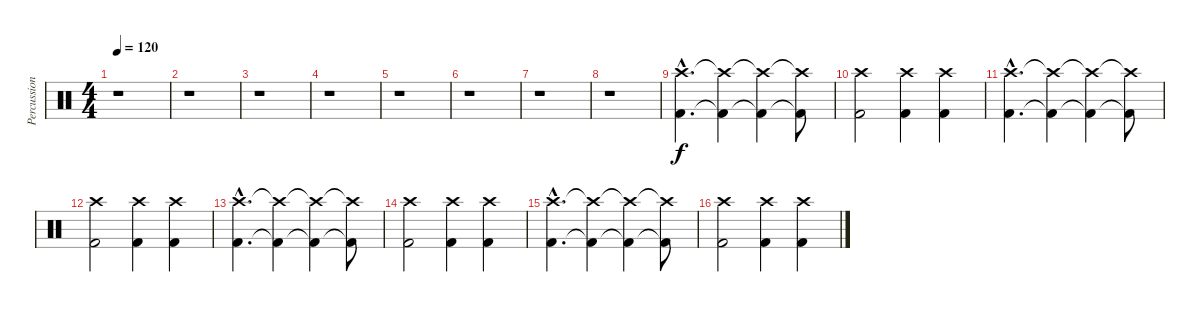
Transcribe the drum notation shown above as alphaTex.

\track ("Percussion" "Percussion") {instrument percussion}
\staff {score}
\articulation defaults
\ts (4 4)
\tempo 120
\clef neutral
\ks c
r.1{dy f} |
r.1 |
r.1 |
r.1 |
r.1 |
r.1 |
r.1 |
r.1 |
("Kick (hit) 2"{hac} "Crash high (hit)"{hac}).4{d} ("Kick (hit) 2"{t} "Crash high (hit)"{t}).4 ("Kick (hit) 2"{t} "Crash high (hit)"{t}).4 ("Kick (hit) 2"{t} "Crash high (hit)"{t}).8 |
("Kick (hit) 2" "Crash high (hit)").2 ("Kick (hit) 2" "Crash high (hit)").4 ("Kick (hit) 2" "Crash high (hit)").4 |
("Kick (hit) 2"{hac} "Crash high (hit)"{hac}).4{d} ("Kick (hit) 2"{t} "Crash high (hit)"{t}).4 ("Kick (hit) 2"{t} "Crash high (hit)"{t}).4 ("Kick (hit) 2"{t} "Crash high (hit)"{t}).8 |
("Kick (hit) 2" "Crash high (hit)").2 ("Kick (hit) 2" "Crash high (hit)").4 ("Kick (hit) 2" "Crash high (hit)").4 |
("Kick (hit) 2"{hac} "Crash high (hit)"{hac}).4{d} ("Kick (hit) 2"{t} "Crash high (hit)"{t}).4 ("Kick (hit) 2"{t} "Crash high (hit)"{t}).4 ("Kick (hit) 2"{t} "Crash high (hit)"{t}).8 |
("Kick (hit) 2" "Crash high (hit)").2 ("Kick (hit) 2" "Crash high (hit)").4 ("Kick (hit) 2" "Crash high (hit)").4 |
("Kick (hit) 2"{hac} "Crash high (hit)"{hac}).4{d} ("Kick (hit) 2"{t} "Crash high (hit)"{t}).4 ("Kick (hit) 2"{t} "Crash high (hit)"{t}).4 ("Kick (hit) 2"{t} "Crash high (hit)"{t}).8 |
("Kick (hit) 2" "Crash high (hit)").2 ("Kick (hit) 2" "Crash high (hit)").4 ("Kick (hit) 2" "Crash high (hit)").4
